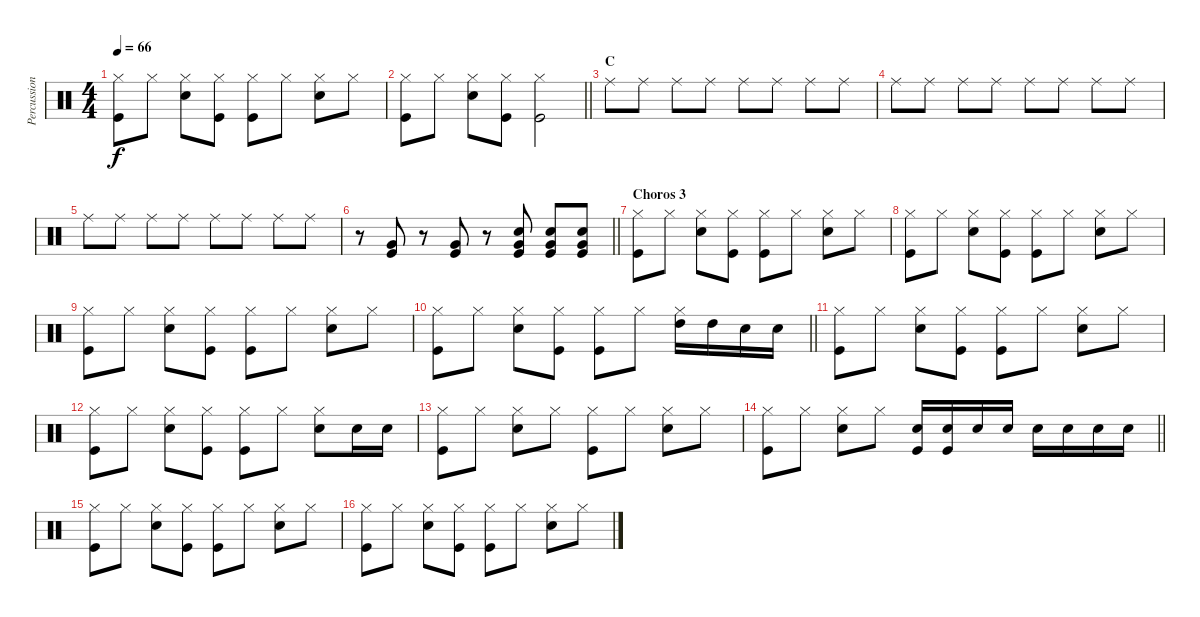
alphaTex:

\track ("Percussion" "Percussion") {instrument percussion}
\staff {score}
\articulation defaults
\ts (4 4)
\tempo 66
\clef neutral
\ks c
("Hi-Hat (closed)" "Kick (hit)").8{dy f} "Hi-Hat (closed)".8 ("Hi-Hat (closed)" "Snare (hit) 2").8 ("Hi-Hat (closed)" "Kick (hit)").8 ("Hi-Hat (closed)" "Kick (hit)").8 "Hi-Hat (closed)".8 ("Hi-Hat (closed)" "Snare (hit) 2").8 "Hi-Hat (closed)".8 |
\barLineRight lightlight
("Hi-Hat (closed)" "Kick (hit)").8 "Hi-Hat (closed)".8 ("Hi-Hat (closed)" "Snare (hit) 2").8 ("Hi-Hat (closed)" "Kick (hit)").8 ("Hi-Hat (closed)" "Kick (hit)").2 |
\section ("" "C")
"Ride (middle)".8 "Ride (middle)".8 "Ride (middle)".8 "Ride (middle)".8 "Ride (middle)".8 "Ride (middle)".8 "Ride (middle)".8 "Ride (middle)".8 |
"Ride (middle)".8 "Ride (middle)".8 "Ride (middle)".8 "Ride (middle)".8 "Ride (middle)".8 "Ride (middle)".8 "Ride (middle)".8 "Ride (middle)".8 |
"Ride (middle)".8 "Ride (middle)".8 "Ride (middle)".8 "Ride (middle)".8 "Ride (middle)".8 "Ride (middle)".8 "Ride (middle)".8 "Ride (middle)".8 |
\barLineRight lightlight
r.8 ("Kick (hit)" "Very Low Tom (hit)").8 r.8 ("Kick (hit)" "Very Low Tom (hit)").8 r.8 ("Snare (hit) 2" "Kick (hit)" "Very Low Tom (hit)").8 ("Snare (hit) 2" "Kick (hit)" "Very Low Tom (hit)").8 ("Snare (hit) 2" "Kick (hit)" "Very Low Tom (hit)").8 |
\section ("" "Choros 3")
("Hi-Hat (closed)" "Kick (hit)").8 "Hi-Hat (closed)".8 ("Hi-Hat (closed)" "Snare (hit) 2").8 ("Hi-Hat (closed)" "Kick (hit)").8 ("Hi-Hat (closed)" "Kick (hit)").8 "Hi-Hat (closed)".8 ("Hi-Hat (closed)" "Snare (hit) 2").8 "Hi-Hat (closed)".8 |
("Hi-Hat (closed)" "Kick (hit)").8 "Hi-Hat (closed)".8 ("Hi-Hat (closed)" "Snare (hit) 2").8 ("Hi-Hat (closed)" "Kick (hit)").8 ("Hi-Hat (closed)" "Kick (hit)").8 "Hi-Hat (closed)".8 ("Hi-Hat (closed)" "Snare (hit) 2").8 "Hi-Hat (closed)".8 |
("Hi-Hat (closed)" "Kick (hit)").8 "Hi-Hat (closed)".8 ("Hi-Hat (closed)" "Snare (hit) 2").8 ("Hi-Hat (closed)" "Kick (hit)").8 ("Hi-Hat (closed)" "Kick (hit)").8 "Hi-Hat (closed)".8 ("Hi-Hat (closed)" "Snare (hit) 2").8 "Hi-Hat (closed)".8 |
\barLineRight lightlight
("Hi-Hat (closed)" "Kick (hit)").8 "Hi-Hat (closed)".8 ("Hi-Hat (closed)" "Snare (hit) 2").8 ("Hi-Hat (closed)" "Kick (hit)").8 ("Hi-Hat (closed)" "Kick (hit)").8 "Hi-Hat (closed)".8 ("Hi-Hat (closed)" "High Tom (hit)").16 "High Tom (hit)".16 "Snare (hit) 2".16 "Snare (hit) 2".16 |
("Hi-Hat (closed)" "Kick (hit)").8 "Hi-Hat (closed)".8 ("Hi-Hat (closed)" "Snare (hit) 2").8 ("Hi-Hat (closed)" "Kick (hit)").8 ("Hi-Hat (closed)" "Kick (hit)").8 "Hi-Hat (closed)".8 ("Hi-Hat (closed)" "Snare (hit) 2").8 "Hi-Hat (closed)".8 |
("Hi-Hat (closed)" "Kick (hit)").8 "Hi-Hat (closed)".8 ("Hi-Hat (closed)" "Snare (hit) 2").8 ("Hi-Hat (closed)" "Kick (hit)").8 ("Hi-Hat (closed)" "Kick (hit)").8 "Hi-Hat (closed)".8 ("Hi-Hat (closed)" "Snare (hit) 2").8 "Snare (hit) 2".16 "Snare (hit) 2".16 |
("Hi-Hat (closed)" "Kick (hit)").8 "Hi-Hat (closed)".8 ("Hi-Hat (closed)" "Snare (hit) 2").8 "Hi-Hat (closed)".8 ("Hi-Hat (closed)" "Kick (hit)").8 "Hi-Hat (closed)".8 ("Hi-Hat (closed)" "Snare (hit) 2").8 "Hi-Hat (closed)".8 |
\barLineRight lightlight
("Hi-Hat (closed)" "Kick (hit)").8 "Hi-Hat (closed)".8 ("Hi-Hat (closed)" "Snare (hit) 2").8 "Hi-Hat (closed)".8 ("Snare (hit) 2" "Kick (hit)").16 ("Snare (hit) 2" "Kick (hit)").16 "Snare (hit) 2".16 "Snare (hit) 2".16 "Snare (hit) 2".16 "Snare (hit) 2".16 "Snare (hit) 2".16 "Snare (hit) 2".16 |
("Hi-Hat (closed)" "Kick (hit)").8 "Hi-Hat (closed)".8 ("Hi-Hat (closed)" "Snare (hit) 2").8 ("Hi-Hat (closed)" "Kick (hit)").8 ("Hi-Hat (closed)" "Kick (hit)").8 "Hi-Hat (closed)".8 ("Hi-Hat (closed)" "Snare (hit) 2").8 "Hi-Hat (closed)".8 |
("Hi-Hat (closed)" "Kick (hit)").8 "Hi-Hat (closed)".8 ("Hi-Hat (closed)" "Snare (hit) 2").8 ("Hi-Hat (closed)" "Kick (hit)").8 ("Hi-Hat (closed)" "Kick (hit)").8 "Hi-Hat (closed)".8 ("Hi-Hat (closed)" "Snare (hit) 2").8 "Hi-Hat (closed)".8
